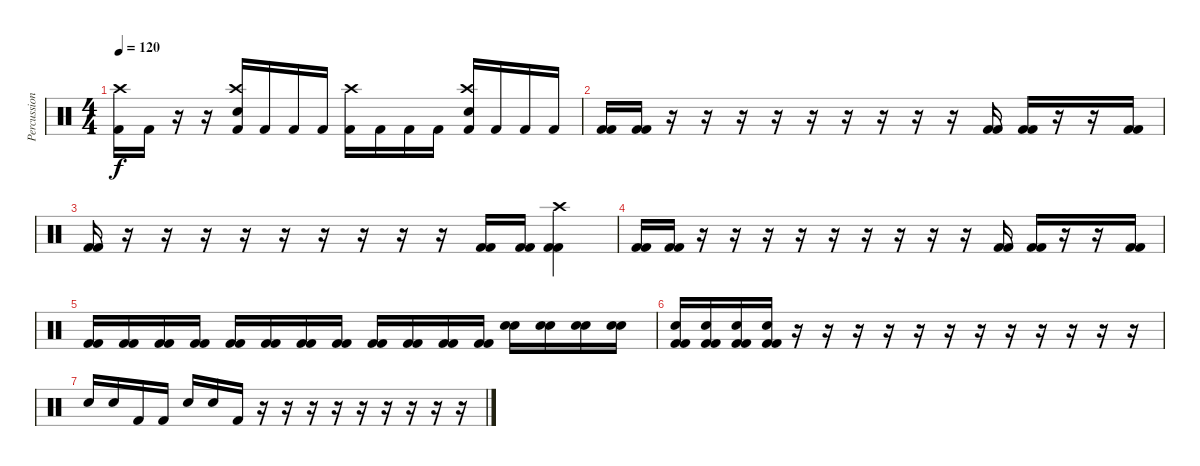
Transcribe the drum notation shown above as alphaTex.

\track ("Percussion" "Percussion") {instrument percussion}
\staff {score}
\articulation defaults
\ts (4 4)
\tempo 120
\clef neutral
\ks c
("Kick (hit) 2" "Crash high (hit)").16{dy f} "Kick (hit) 2".16 r.16 r.16 ("Kick (hit) 2" "Crash high (hit)" "Electric Snare (hit)").16 "Kick (hit) 2".16 "Kick (hit) 2".16 "Kick (hit) 2".16 ("Kick (hit) 2" "Crash high (hit)").16 "Kick (hit) 2".16 "Kick (hit) 2".16 "Kick (hit) 2".16 ("Kick (hit) 2" "Crash high (hit)" "Electric Snare (hit)").16 "Kick (hit) 2".16 "Kick (hit) 2".16 "Kick (hit) 2".16 |
("Kick (hit) 2" "Kick (hit) 2").16 ("Kick (hit) 2" "Kick (hit) 2").16 r.16 r.16 r.16 r.16 r.16 r.16 r.16 r.16 r.16 ("Kick (hit) 2" "Kick (hit) 2").16 ("Kick (hit) 2" "Kick (hit) 2").16 r.16 r.16 ("Kick (hit) 2" "Kick (hit) 2").16 |
("Kick (hit) 2" "Kick (hit) 2").16 r.16 r.16 r.16 r.16 r.16 r.16 r.16 r.16 r.16 ("Kick (hit) 2" "Kick (hit) 2").16 ("Kick (hit) 2" "Kick (hit) 2").16 ("Kick (hit) 2" "Kick (hit) 2" "Crash high (hit)").4 |
("Kick (hit) 2" "Kick (hit) 2").16 ("Kick (hit) 2" "Kick (hit) 2").16 r.16 r.16 r.16 r.16 r.16 r.16 r.16 r.16 r.16 ("Kick (hit) 2" "Kick (hit) 2").16 ("Kick (hit) 2" "Kick (hit) 2").16 r.16 r.16 ("Kick (hit) 2" "Kick (hit) 2").16 |
("Kick (hit) 2" "Kick (hit) 2").16 ("Kick (hit) 2" "Kick (hit) 2").16 ("Kick (hit) 2" "Kick (hit) 2").16 ("Kick (hit) 2" "Kick (hit) 2").16 ("Kick (hit) 2" "Kick (hit) 2").16 ("Kick (hit) 2" "Kick (hit) 2").16 ("Kick (hit) 2" "Kick (hit) 2").16 ("Kick (hit) 2" "Kick (hit) 2").16 ("Kick (hit) 2" "Kick (hit) 2").16 ("Kick (hit) 2" "Kick (hit) 2").16 ("Kick (hit) 2" "Kick (hit) 2").16 ("Kick (hit) 2" "Kick (hit) 2").16 ("Electric Snare (hit)" "Electric Snare (hit)").16 ("Electric Snare (hit)" "Electric Snare (hit)").16 ("Electric Snare (hit)" "Electric Snare (hit)").16 ("Electric Snare (hit)" "Electric Snare (hit)").16 |
("Kick (hit) 2" "Kick (hit) 2" "Electric Snare (hit)").16 ("Kick (hit) 2" "Kick (hit) 2" "Electric Snare (hit)").16 ("Kick (hit) 2" "Kick (hit) 2" "Electric Snare (hit)").16 ("Kick (hit) 2" "Kick (hit) 2" "Electric Snare (hit)").16 r.16 r.16 r.16 r.16 r.16 r.16 r.16 r.16 r.16 r.16 r.16 r.16 |
"Electric Snare (hit)".16 "Electric Snare (hit)".16 "Kick (hit) 2".16 "Kick (hit) 2".16 "Electric Snare (hit)".16 "Electric Snare (hit)".16 "Kick (hit) 2".16 r.16 r.16 r.16 r.16 r.16 r.16 r.16 r.16 r.16
